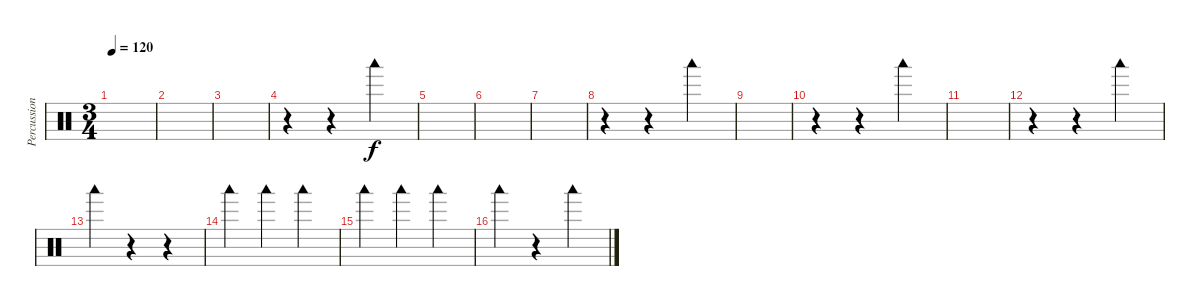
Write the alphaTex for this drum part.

\track ("Percussion" "Percussion") {instrument percussion}
\staff {score}
\articulation defaults
\ts (3 4)
\tempo 120
\clef neutral
\ks c
|
|
|
r.4 r.4 "Woodblock low (hit)".4 |
|
|
|
r.4 r.4 "Woodblock low (hit)".4 |
|
r.4 r.4 "Woodblock low (hit)".4 |
|
r.4 r.4 "Woodblock low (hit)".4 |
"Woodblock low (hit)".4 r.4 r.4 |
"Woodblock low (hit)".4 "Woodblock low (hit)".4 "Woodblock low (hit)".4 |
"Woodblock low (hit)".4 "Woodblock low (hit)".4 "Woodblock low (hit)".4 |
"Woodblock low (hit)".4 r.4 "Woodblock low (hit)".4
